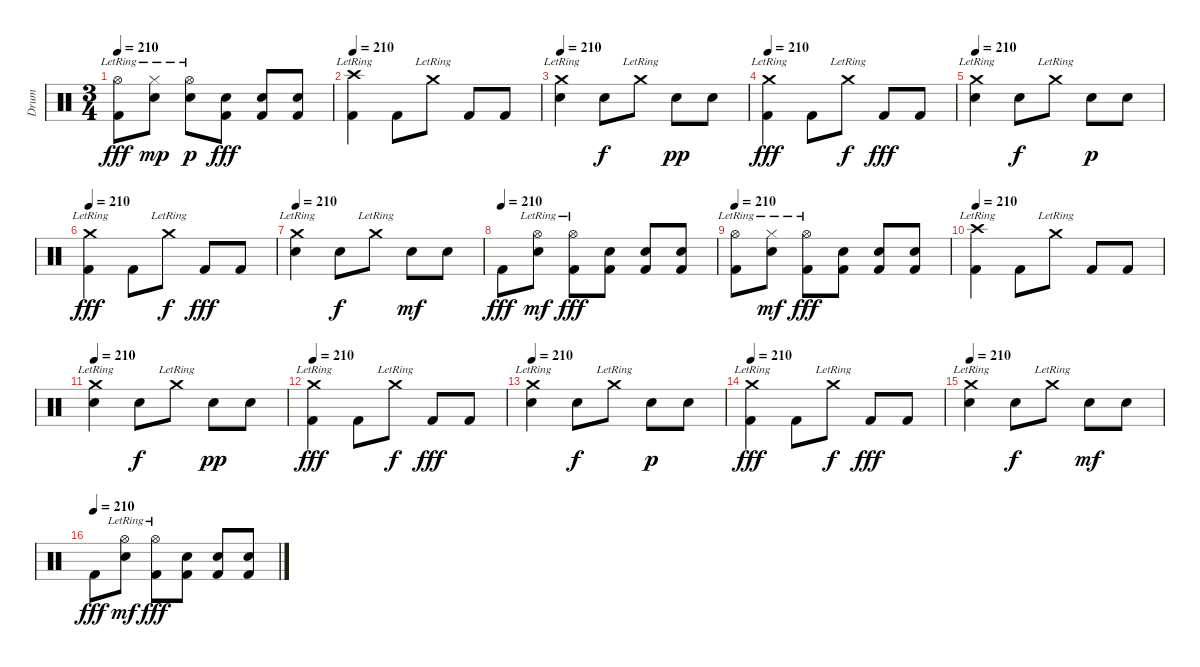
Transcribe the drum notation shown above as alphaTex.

\track ("Drum" "Drum") {instrument percussion}
\staff {score}
\articulation defaults
\ts (3 4)
\tempo 210
\clef neutral
\ks c
("Hi-Hat (open)"{lr} "Kick (hit) 2").8{dy fff} ("Hi-Hat (closed)"{lr} "Electric Snare (hit)").8{dy mp} ("Hi-Hat (open)"{lr} "Electric Snare (hit)").8{dy p} ("Electric Snare (hit)" "Kick (hit) 2").8{dy fff} ("Electric Snare (hit)" "Kick (hit) 2").8 ("Electric Snare (hit)" "Kick (hit) 2").8 |
\tempo 210
("Crash high (hit)"{lr} "Kick (hit) 2").4 "Kick (hit) 2".8 "Crash medium (hit)"{lr}.8 "Kick (hit) 2".8 "Kick (hit) 2".8 |
\tempo 210
("Crash medium (hit)"{lr} "Electric Snare (hit)").4 "Electric Snare (hit)".8{dy f} "Crash medium (hit)"{lr}.8 "Electric Snare (hit)".8{dy pp} "Electric Snare (hit)".8 |
\tempo 210
("Crash medium (hit)"{lr} "Kick (hit) 2").4{dy fff} "Kick (hit) 2".8 "Crash medium (hit)"{lr}.8{dy f} "Kick (hit) 2".8{dy fff} "Kick (hit) 2".8 |
\tempo 210
("Crash medium (hit)"{lr} "Electric Snare (hit)").4 "Electric Snare (hit)".8{dy f} "Crash medium (hit)"{lr}.8 "Electric Snare (hit)".8{dy p} "Electric Snare (hit)".8 |
\tempo 210
("Crash medium (hit)"{lr} "Kick (hit) 2").4{dy fff} "Kick (hit) 2".8 "Crash medium (hit)"{lr}.8{dy f} "Kick (hit) 2".8{dy fff} "Kick (hit) 2".8 |
\tempo 210
("Crash medium (hit)"{lr} "Electric Snare (hit)").4 "Electric Snare (hit)".8{dy f} "Crash medium (hit)"{lr}.8 "Electric Snare (hit)".8{dy mf} "Electric Snare (hit)".8 |
\tempo (210)
"Kick (hit) 2".8{dy fff} ("Hi-Hat (open)"{lr} "Electric Snare (hit)").8{dy mf} ("Hi-Hat (open)"{lr} "Kick (hit) 2").8{dy fff} ("Electric Snare (hit)" "Kick (hit) 2").8 ("Electric Snare (hit)" "Kick (hit) 2").8 ("Electric Snare (hit)" "Kick (hit) 2").8 |
\tempo 210
("Hi-Hat (open)"{lr} "Kick (hit) 2").8 ("Hi-Hat (closed)"{lr} "Electric Snare (hit)").8{dy mf} ("Hi-Hat (open)"{lr} "Kick (hit) 2").8{dy fff} ("Electric Snare (hit)" "Kick (hit) 2").8 ("Electric Snare (hit)" "Kick (hit) 2").8 ("Electric Snare (hit)" "Kick (hit) 2").8 |
\tempo 210
("Crash high (hit)"{lr} "Kick (hit) 2").4 "Kick (hit) 2".8 "Crash medium (hit)"{lr}.8 "Kick (hit) 2".8 "Kick (hit) 2".8 |
\tempo 210
("Crash medium (hit)"{lr} "Electric Snare (hit)").4 "Electric Snare (hit)".8{dy f} "Crash medium (hit)"{lr}.8 "Electric Snare (hit)".8{dy pp} "Electric Snare (hit)".8 |
\tempo 210
("Crash medium (hit)"{lr} "Kick (hit) 2").4{dy fff} "Kick (hit) 2".8 "Crash medium (hit)"{lr}.8{dy f} "Kick (hit) 2".8{dy fff} "Kick (hit) 2".8 |
\tempo 210
("Crash medium (hit)"{lr} "Electric Snare (hit)").4 "Electric Snare (hit)".8{dy f} "Crash medium (hit)"{lr}.8 "Electric Snare (hit)".8{dy p} "Electric Snare (hit)".8 |
\tempo 210
("Crash medium (hit)"{lr} "Kick (hit) 2").4{dy fff} "Kick (hit) 2".8 "Crash medium (hit)"{lr}.8{dy f} "Kick (hit) 2".8{dy fff} "Kick (hit) 2".8 |
\tempo 210
("Crash medium (hit)"{lr} "Electric Snare (hit)").4 "Electric Snare (hit)".8{dy f} "Crash medium (hit)"{lr}.8 "Electric Snare (hit)".8{dy mf} "Electric Snare (hit)".8 |
\tempo (210)
"Kick (hit) 2".8{dy fff} ("Hi-Hat (open)"{lr} "Electric Snare (hit)").8{dy mf} ("Hi-Hat (open)"{lr} "Kick (hit) 2").8{dy fff} ("Electric Snare (hit)" "Kick (hit) 2").8 ("Electric Snare (hit)" "Kick (hit) 2").8 ("Electric Snare (hit)" "Kick (hit) 2").8
